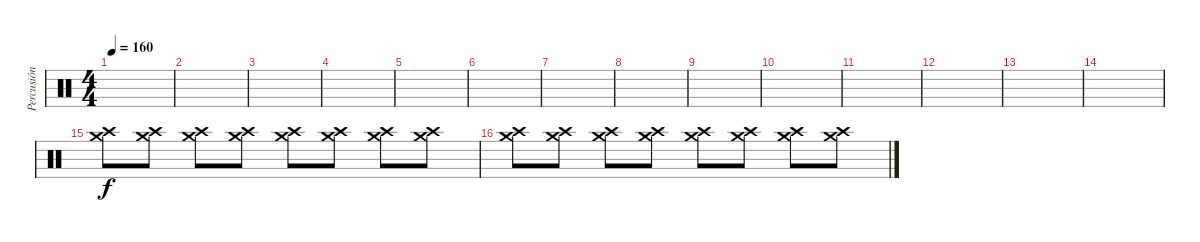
\track ("Percusión" "Percusión") {instrument percussion}
\staff {score}
\articulation defaults
\ts (4 4)
\tempo 160
\clef neutral
\ks c
|
|
|
|
|
|
|
|
|
|
|
|
|
|
("Crash high (hit)" "Crash medium (hit)").8{balance 0} ("Crash high (hit)" "Crash medium (hit)").8 ("Crash high (hit)" "Crash medium (hit)").8 ("Crash high (hit)" "Crash medium (hit)").8 ("Crash high (hit)" "Crash medium (hit)").8 ("Crash high (hit)" "Crash medium (hit)").8 ("Crash high (hit)" "Crash medium (hit)").8 ("Crash high (hit)" "Crash medium (hit)").8 |
("Crash high (hit)" "Crash medium (hit)").8{balance 16} ("Crash high (hit)" "Crash medium (hit)").8 ("Crash high (hit)" "Crash medium (hit)").8 ("Crash high (hit)" "Crash medium (hit)").8 ("Crash high (hit)" "Crash medium (hit)").8 ("Crash high (hit)" "Crash medium (hit)").8 ("Crash high (hit)" "Crash medium (hit)").8 ("Crash high (hit)" "Crash medium (hit)").8
